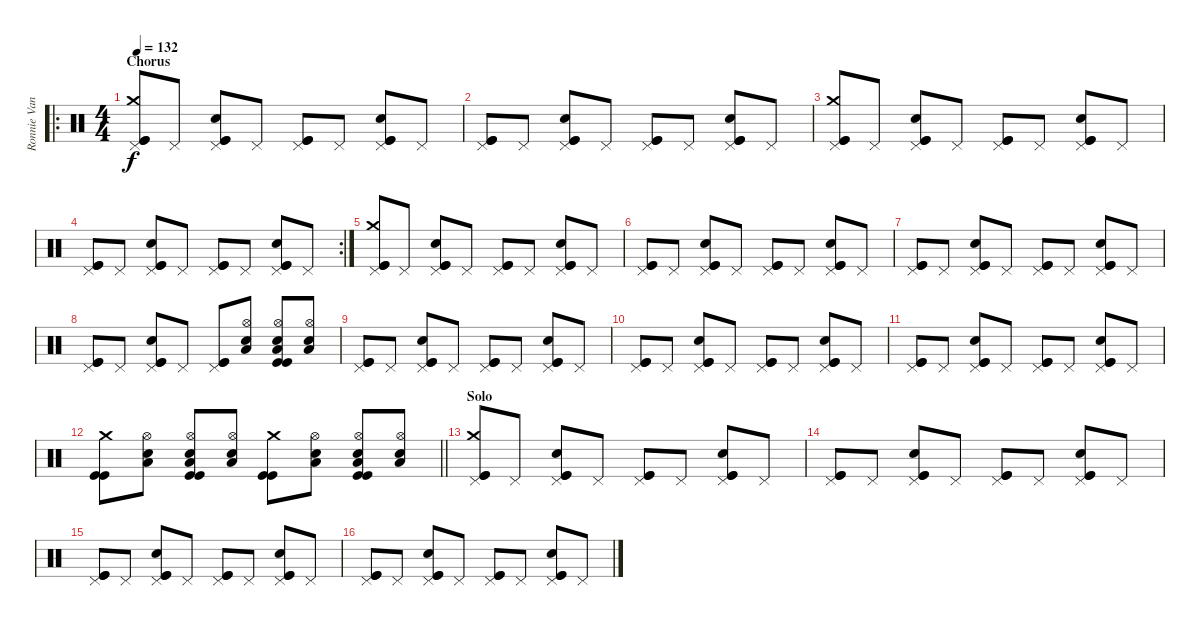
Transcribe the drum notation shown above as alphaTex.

\track ("Ronnie Vanucci" "Ronnie Van") {instrument percussion}
\staff {score}
\articulation defaults
\ro
\ts (4 4)
\section ("" "Chorus")
\tempo 132
\clef neutral
\ks c
("Pedal Hi-Hat (hit)" "Crash medium (hit)" "Kick (hit)" "Kick (hit)").8{dy f} "Pedal Hi-Hat (hit)".8 ("Pedal Hi-Hat (hit)" "Electric Snare (hit)" "Kick (hit)" "Kick (hit)").8 "Pedal Hi-Hat (hit)".8 ("Pedal Hi-Hat (hit)" "Kick (hit)" "Kick (hit)").8 "Pedal Hi-Hat (hit)".8 ("Pedal Hi-Hat (hit)" "Electric Snare (hit)" "Kick (hit)" "Kick (hit)").8 "Pedal Hi-Hat (hit)".8 |
("Pedal Hi-Hat (hit)" "Kick (hit)" "Kick (hit)").8 "Pedal Hi-Hat (hit)".8 ("Pedal Hi-Hat (hit)" "Electric Snare (hit)" "Kick (hit)" "Kick (hit)").8 "Pedal Hi-Hat (hit)".8 ("Pedal Hi-Hat (hit)" "Kick (hit)" "Kick (hit)").8 "Pedal Hi-Hat (hit)".8 ("Pedal Hi-Hat (hit)" "Electric Snare (hit)" "Kick (hit)" "Kick (hit)").8 "Pedal Hi-Hat (hit)".8 |
("Pedal Hi-Hat (hit)" "Crash medium (hit)" "Kick (hit)" "Kick (hit)").8 "Pedal Hi-Hat (hit)".8 ("Pedal Hi-Hat (hit)" "Electric Snare (hit)" "Kick (hit)" "Kick (hit)").8 "Pedal Hi-Hat (hit)".8 ("Pedal Hi-Hat (hit)" "Kick (hit)" "Kick (hit)").8 "Pedal Hi-Hat (hit)".8 ("Pedal Hi-Hat (hit)" "Electric Snare (hit)" "Kick (hit)" "Kick (hit)").8 "Pedal Hi-Hat (hit)".8 |
\rc 2
("Pedal Hi-Hat (hit)" "Kick (hit)" "Kick (hit)").8 "Pedal Hi-Hat (hit)".8 ("Pedal Hi-Hat (hit)" "Electric Snare (hit)" "Kick (hit)" "Kick (hit)").8 "Pedal Hi-Hat (hit)".8 ("Pedal Hi-Hat (hit)" "Kick (hit)" "Kick (hit)").8 "Pedal Hi-Hat (hit)".8 ("Pedal Hi-Hat (hit)" "Electric Snare (hit)" "Kick (hit)" "Kick (hit)").8 "Pedal Hi-Hat (hit)".8 |
("Pedal Hi-Hat (hit)" "Crash medium (hit)" "Kick (hit)" "Kick (hit)").8 "Pedal Hi-Hat (hit)".8 ("Pedal Hi-Hat (hit)" "Electric Snare (hit)" "Kick (hit)" "Kick (hit)").8 "Pedal Hi-Hat (hit)".8 ("Pedal Hi-Hat (hit)" "Kick (hit)" "Kick (hit)").8 "Pedal Hi-Hat (hit)".8 ("Pedal Hi-Hat (hit)" "Electric Snare (hit)" "Kick (hit)" "Kick (hit)").8 "Pedal Hi-Hat (hit)".8 |
("Pedal Hi-Hat (hit)" "Kick (hit)" "Kick (hit)").8 "Pedal Hi-Hat (hit)".8 ("Pedal Hi-Hat (hit)" "Electric Snare (hit)" "Kick (hit)" "Kick (hit)").8 "Pedal Hi-Hat (hit)".8 ("Pedal Hi-Hat (hit)" "Kick (hit)" "Kick (hit)").8 "Pedal Hi-Hat (hit)".8 ("Pedal Hi-Hat (hit)" "Electric Snare (hit)" "Kick (hit)" "Kick (hit)").8 "Pedal Hi-Hat (hit)".8 |
("Pedal Hi-Hat (hit)" "Kick (hit)" "Kick (hit)").8 "Pedal Hi-Hat (hit)".8 ("Pedal Hi-Hat (hit)" "Electric Snare (hit)" "Kick (hit)" "Kick (hit)").8 "Pedal Hi-Hat (hit)".8 ("Pedal Hi-Hat (hit)" "Kick (hit)" "Kick (hit)").8 "Pedal Hi-Hat (hit)".8 ("Pedal Hi-Hat (hit)" "Electric Snare (hit)" "Kick (hit)" "Kick (hit)").8 "Pedal Hi-Hat (hit)".8 |
("Pedal Hi-Hat (hit)" "Kick (hit)" "Kick (hit)").8 "Pedal Hi-Hat (hit)".8 ("Pedal Hi-Hat (hit)" "Electric Snare (hit)" "Kick (hit)" "Kick (hit)").8 "Pedal Hi-Hat (hit)".8 ("Pedal Hi-Hat (hit)" "Kick (hit)" "Kick (hit)").8 ("Hi-Hat (open)" "Low Floor Tom (hit)" "Electric Snare (hit)").8 ("Hi-Hat (open)" "Low Floor Tom (hit)" "Electric Snare (hit)" "Kick (hit)" "Kick (hit)").8 ("Hi-Hat (open)" "Low Floor Tom (hit)" "Electric Snare (hit)").8 |
("Pedal Hi-Hat (hit)" "Kick (hit)" "Kick (hit)").8 "Pedal Hi-Hat (hit)".8 ("Pedal Hi-Hat (hit)" "Electric Snare (hit)" "Kick (hit)" "Kick (hit)").8 "Pedal Hi-Hat (hit)".8 ("Pedal Hi-Hat (hit)" "Kick (hit)" "Kick (hit)").8 "Pedal Hi-Hat (hit)".8 ("Pedal Hi-Hat (hit)" "Electric Snare (hit)" "Kick (hit)" "Kick (hit)").8 "Pedal Hi-Hat (hit)".8 |
("Pedal Hi-Hat (hit)" "Kick (hit)" "Kick (hit)").8 "Pedal Hi-Hat (hit)".8 ("Pedal Hi-Hat (hit)" "Electric Snare (hit)" "Kick (hit)" "Kick (hit)").8 "Pedal Hi-Hat (hit)".8 ("Pedal Hi-Hat (hit)" "Kick (hit)" "Kick (hit)").8 "Pedal Hi-Hat (hit)".8 ("Pedal Hi-Hat (hit)" "Electric Snare (hit)" "Kick (hit)" "Kick (hit)").8 "Pedal Hi-Hat (hit)".8 |
("Pedal Hi-Hat (hit)" "Kick (hit)" "Kick (hit)").8 "Pedal Hi-Hat (hit)".8 ("Pedal Hi-Hat (hit)" "Electric Snare (hit)" "Kick (hit)" "Kick (hit)").8 "Pedal Hi-Hat (hit)".8 ("Pedal Hi-Hat (hit)" "Kick (hit)" "Kick (hit)").8 "Pedal Hi-Hat (hit)".8 ("Pedal Hi-Hat (hit)" "Electric Snare (hit)" "Kick (hit)" "Kick (hit)").8 "Pedal Hi-Hat (hit)".8 |
\barLineRight lightlight
("Crash medium (hit)" "Kick (hit)" "Kick (hit)").8 ("Hi-Hat (open)" "Electric Snare (hit)" "Low Floor Tom (hit)").8 ("Hi-Hat (open)" "Electric Snare (hit)" "Low Floor Tom (hit)" "Kick (hit)" "Kick (hit)").8 ("Hi-Hat (open)" "Electric Snare (hit)" "Low Floor Tom (hit)").8 ("Crash medium (hit)" "Kick (hit)" "Kick (hit)").8 ("Hi-Hat (open)" "Electric Snare (hit)" "Low Floor Tom (hit)").8 ("Hi-Hat (open)" "Electric Snare (hit)" "Low Floor Tom (hit)" "Kick (hit)" "Kick (hit)").8 ("Hi-Hat (open)" "Electric Snare (hit)" "Low Floor Tom (hit)").8 |
\section ("" "Solo")
("Pedal Hi-Hat (hit)" "Crash medium (hit)" "Kick (hit)" "Kick (hit)").8 "Pedal Hi-Hat (hit)".8 ("Pedal Hi-Hat (hit)" "Electric Snare (hit)" "Kick (hit)" "Kick (hit)").8 "Pedal Hi-Hat (hit)".8 ("Pedal Hi-Hat (hit)" "Kick (hit)" "Kick (hit)").8 "Pedal Hi-Hat (hit)".8 ("Pedal Hi-Hat (hit)" "Electric Snare (hit)" "Kick (hit)" "Kick (hit)").8 "Pedal Hi-Hat (hit)".8 |
("Pedal Hi-Hat (hit)" "Kick (hit)" "Kick (hit)").8 "Pedal Hi-Hat (hit)".8 ("Pedal Hi-Hat (hit)" "Electric Snare (hit)" "Kick (hit)" "Kick (hit)").8 "Pedal Hi-Hat (hit)".8 ("Pedal Hi-Hat (hit)" "Kick (hit)" "Kick (hit)").8 "Pedal Hi-Hat (hit)".8 ("Pedal Hi-Hat (hit)" "Electric Snare (hit)" "Kick (hit)" "Kick (hit)").8 "Pedal Hi-Hat (hit)".8 |
("Pedal Hi-Hat (hit)" "Kick (hit)" "Kick (hit)").8 "Pedal Hi-Hat (hit)".8 ("Pedal Hi-Hat (hit)" "Electric Snare (hit)" "Kick (hit)" "Kick (hit)").8 "Pedal Hi-Hat (hit)".8 ("Pedal Hi-Hat (hit)" "Kick (hit)" "Kick (hit)").8 "Pedal Hi-Hat (hit)".8 ("Pedal Hi-Hat (hit)" "Electric Snare (hit)" "Kick (hit)" "Kick (hit)").8 "Pedal Hi-Hat (hit)".8 |
("Pedal Hi-Hat (hit)" "Kick (hit)" "Kick (hit)").8 "Pedal Hi-Hat (hit)".8 ("Pedal Hi-Hat (hit)" "Electric Snare (hit)" "Kick (hit)" "Kick (hit)").8 "Pedal Hi-Hat (hit)".8 ("Pedal Hi-Hat (hit)" "Kick (hit)" "Kick (hit)").8 "Pedal Hi-Hat (hit)".8 ("Pedal Hi-Hat (hit)" "Electric Snare (hit)" "Kick (hit)" "Kick (hit)").8 "Pedal Hi-Hat (hit)".8
